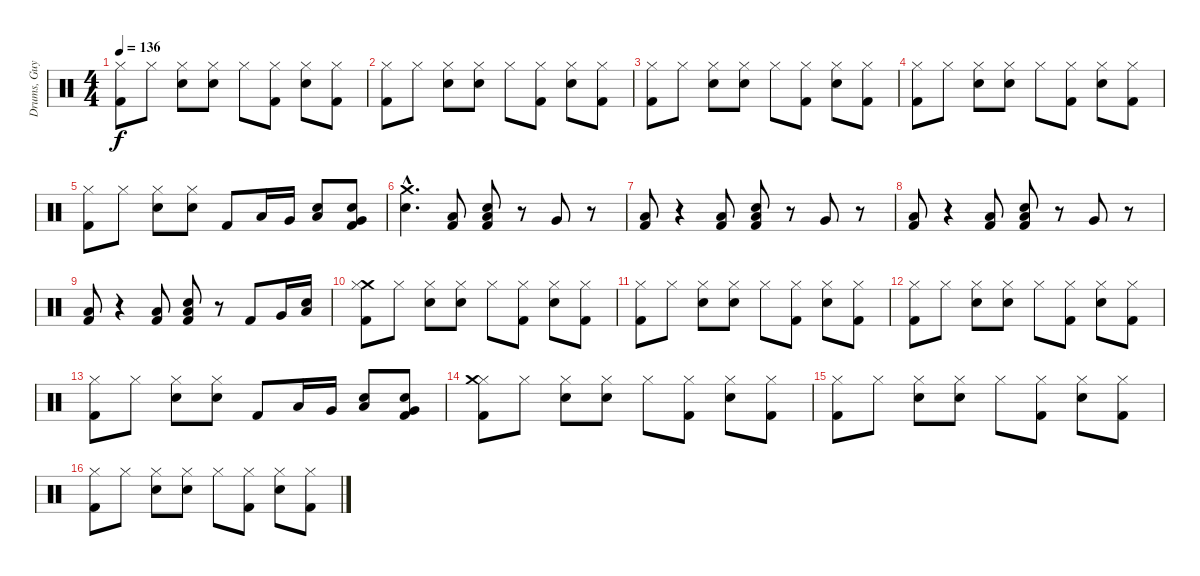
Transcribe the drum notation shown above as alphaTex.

\track ("Drums, Guy" "Drums, Guy") {instrument percussion}
\staff {score}
\articulation defaults
\ts (4 4)
\tempo 136
\clef neutral
\ks c
("Hi-Hat (closed)" "Kick (hit) 2").8{dy f} "Hi-Hat (closed)".8 ("Electric Snare (hit)" "Hi-Hat (closed)").8 ("Electric Snare (hit)" "Hi-Hat (closed)").8 "Hi-Hat (closed)".8 ("Kick (hit) 2" "Hi-Hat (closed)").8 ("Electric Snare (hit)" "Hi-Hat (closed)").8 ("Kick (hit) 2" "Hi-Hat (closed)").8 |
("Hi-Hat (closed)" "Kick (hit) 2").8 "Hi-Hat (closed)".8 ("Electric Snare (hit)" "Hi-Hat (closed)").8 ("Electric Snare (hit)" "Hi-Hat (closed)").8 "Hi-Hat (closed)".8 ("Kick (hit) 2" "Hi-Hat (closed)").8 ("Electric Snare (hit)" "Hi-Hat (closed)").8 ("Kick (hit) 2" "Hi-Hat (closed)").8 |
("Hi-Hat (closed)" "Kick (hit) 2").8 "Hi-Hat (closed)".8 ("Electric Snare (hit)" "Hi-Hat (closed)").8 ("Electric Snare (hit)" "Hi-Hat (closed)").8 "Hi-Hat (closed)".8 ("Kick (hit) 2" "Hi-Hat (closed)").8 ("Electric Snare (hit)" "Hi-Hat (closed)").8 ("Kick (hit) 2" "Hi-Hat (closed)").8 |
("Hi-Hat (closed)" "Kick (hit) 2").8 "Hi-Hat (closed)".8 ("Electric Snare (hit)" "Hi-Hat (closed)").8 ("Electric Snare (hit)" "Hi-Hat (closed)").8 "Hi-Hat (closed)".8 ("Kick (hit) 2" "Hi-Hat (closed)").8 ("Electric Snare (hit)" "Hi-Hat (closed)").8 ("Kick (hit) 2" "Hi-Hat (closed)").8 |
("Hi-Hat (closed)" "Kick (hit) 2").8 "Hi-Hat (closed)".8 ("Electric Snare (hit)" "Hi-Hat (closed)").8 ("Electric Snare (hit)" "Hi-Hat (closed)").8 "Kick (hit) 2".8 "Low Floor Tom (hit)".16 "Very Low Tom (hit)".16 ("Low Tom (hit)" "Electric Snare (hit)").8 ("Very Low Tom (hit)" "Electric Snare (hit)" "Kick (hit) 2").8 |
("Crash medium (hit)"{hac} "Electric Snare (hit)"{hac}).4{d} ("Kick (hit) 2" "Low Floor Tom (hit)").8 ("Kick (hit) 2" "Low Floor Tom (hit)" "Electric Snare (hit)").8 r.8 "Very Low Tom (hit)".8 r.8 |
("Kick (hit) 2" "Low Floor Tom (hit)").8 r.4 ("Kick (hit) 2" "Low Floor Tom (hit)").8 ("Low Floor Tom (hit)" "Kick (hit) 2" "Electric Snare (hit)").8 r.8 "Very Low Tom (hit)".8 r.8 |
("Low Floor Tom (hit)" "Kick (hit) 2").8 r.4 ("Kick (hit) 2" "Low Floor Tom (hit)").8 ("Low Floor Tom (hit)" "Kick (hit) 2" "Electric Snare (hit)").8 r.8 "Very Low Tom (hit)".8 r.8 |
("Low Floor Tom (hit)" "Kick (hit) 2").8 r.4 ("Kick (hit) 2" "Low Floor Tom (hit)").8 ("Low Floor Tom (hit)" "Kick (hit) 2" "Electric Snare (hit)").8 r.8 "Kick (hit) 2".8 "Very Low Tom (hit)".16 ("Low Floor Tom (hit)" "Electric Snare (hit)").16 |
("Crash medium (hit)" "Hi-Hat (closed)" "Kick (hit) 2").8 "Hi-Hat (closed)".8 ("Electric Snare (hit)" "Hi-Hat (closed)").8 ("Electric Snare (hit)" "Hi-Hat (closed)").8 "Hi-Hat (closed)".8 ("Kick (hit) 2" "Hi-Hat (closed)").8 ("Electric Snare (hit)" "Hi-Hat (closed)").8 ("Kick (hit) 2" "Hi-Hat (closed)").8 |
("Kick (hit) 2" "Hi-Hat (closed)").8 "Hi-Hat (closed)".8 ("Electric Snare (hit)" "Hi-Hat (closed)").8 ("Electric Snare (hit)" "Hi-Hat (closed)").8 "Hi-Hat (closed)".8 ("Kick (hit) 2" "Hi-Hat (closed)").8 ("Electric Snare (hit)" "Hi-Hat (closed)").8 ("Kick (hit) 2" "Hi-Hat (closed)").8 |
("Kick (hit) 2" "Hi-Hat (closed)").8 "Hi-Hat (closed)".8 ("Electric Snare (hit)" "Hi-Hat (closed)").8 ("Electric Snare (hit)" "Hi-Hat (closed)").8 "Hi-Hat (closed)".8 ("Kick (hit) 2" "Hi-Hat (closed)").8 ("Electric Snare (hit)" "Hi-Hat (closed)").8 ("Kick (hit) 2" "Hi-Hat (closed)").8 |
("Kick (hit) 2" "Hi-Hat (closed)").8 "Hi-Hat (closed)".8 ("Electric Snare (hit)" "Hi-Hat (closed)").8 ("Electric Snare (hit)" "Hi-Hat (closed)").8 "Kick (hit) 2".8 "Low Floor Tom (hit)".16 "Very Low Tom (hit)".16 ("Low Tom (hit)" "Electric Snare (hit)").8 ("Very Low Tom (hit)" "Electric Snare (hit)" "Kick (hit) 2").8 |
("Kick (hit) 2" "Hi-Hat (closed)" "Crash medium (hit)").8 "Hi-Hat (closed)".8 ("Electric Snare (hit)" "Hi-Hat (closed)").8 ("Electric Snare (hit)" "Hi-Hat (closed)").8 "Hi-Hat (closed)".8 ("Kick (hit) 2" "Hi-Hat (closed)").8 ("Electric Snare (hit)" "Hi-Hat (closed)").8 ("Kick (hit) 2" "Hi-Hat (closed)").8 |
("Kick (hit) 2" "Hi-Hat (closed)").8 "Hi-Hat (closed)".8 ("Electric Snare (hit)" "Hi-Hat (closed)").8 ("Electric Snare (hit)" "Hi-Hat (closed)").8 "Hi-Hat (closed)".8 ("Kick (hit) 2" "Hi-Hat (closed)").8 ("Electric Snare (hit)" "Hi-Hat (closed)").8 ("Kick (hit) 2" "Hi-Hat (closed)").8 |
("Kick (hit) 2" "Hi-Hat (closed)").8 "Hi-Hat (closed)".8 ("Electric Snare (hit)" "Hi-Hat (closed)").8 ("Electric Snare (hit)" "Hi-Hat (closed)").8 "Hi-Hat (closed)".8 ("Kick (hit) 2" "Hi-Hat (closed)").8 ("Electric Snare (hit)" "Hi-Hat (closed)").8 ("Kick (hit) 2" "Hi-Hat (closed)").8
